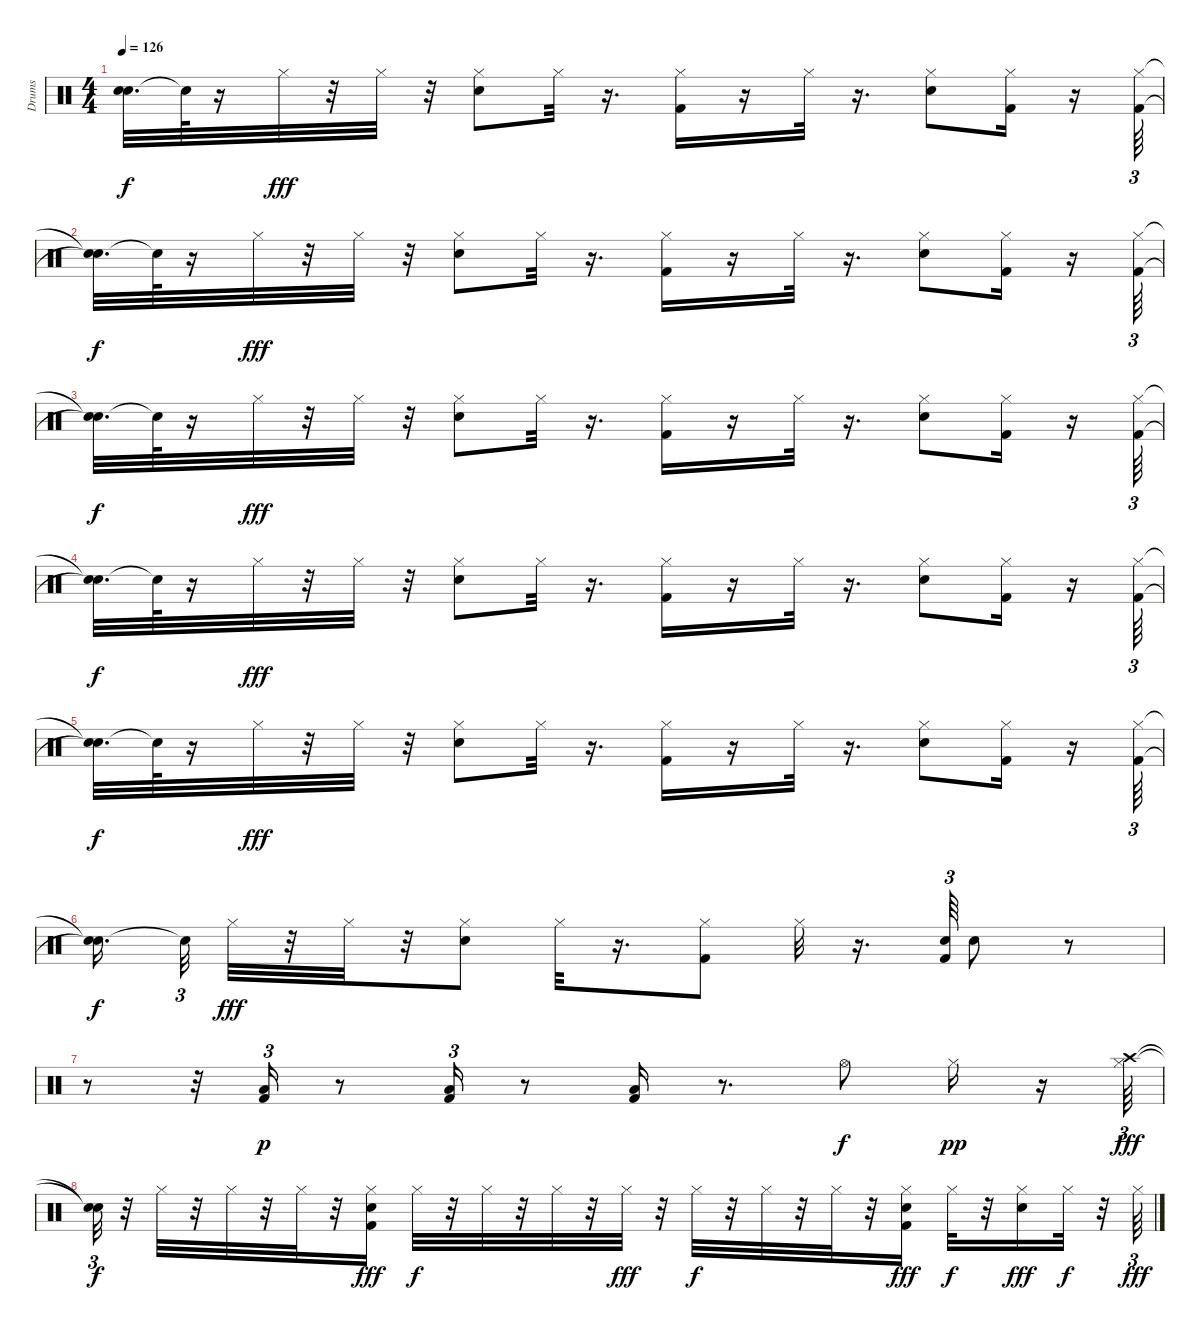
\track ("Drums" "Drums") {instrument percussion}
\staff {score}
\articulation defaults
\ts (4 4)
\tempo 126
\clef neutral
\ks c
("Snare (hit)"{t} "Snare (hit)"{t}).32{d dy f} "Snare (hit)"{t}.64 r.16 "Hi-Hat (closed)".32{dy fff} r.32 "Hi-Hat (closed)".32 r.32 ("Hi-Hat (closed)" "Snare (hit) 2").8 "Hi-Hat (closed)".32 r.16{d} ("Hi-Hat (closed)" "Kick (hit) 2").16 r.16 "Hi-Hat (closed)".32 r.16{d} ("Snare (hit) 2" "Hi-Hat (closed)").8 ("Hi-Hat (closed)" "Kick (hit) 2").16 r.16 ("Hi-Hat (closed)" "Kick (hit) 2").64{tu (3 2)} |
("Snare (hit)"{t} "Snare (hit)"{t}).32{d dy f} "Snare (hit)"{t}.64 r.16 "Hi-Hat (closed)".32{dy fff} r.32 "Hi-Hat (closed)".32 r.32 ("Hi-Hat (closed)" "Snare (hit) 2").8 "Hi-Hat (closed)".32 r.16{d} ("Kick (hit) 2" "Hi-Hat (closed)").16 r.16 "Hi-Hat (closed)".32 r.16{d} ("Hi-Hat (closed)" "Snare (hit) 2").8 ("Kick (hit) 2" "Hi-Hat (closed)").16 r.16 ("Kick (hit) 2" "Hi-Hat (closed)").64{tu (3 2)} |
("Snare (hit)"{t} "Snare (hit)"{t}).32{d dy f} "Snare (hit)"{t}.64 r.16 "Hi-Hat (closed)".32{dy fff} r.32 "Hi-Hat (closed)".32 r.32 ("Snare (hit) 2" "Hi-Hat (closed)").8 "Hi-Hat (closed)".32 r.16{d} ("Hi-Hat (closed)" "Kick (hit) 2").16 r.16 "Hi-Hat (closed)".32 r.16{d} ("Hi-Hat (closed)" "Snare (hit) 2").8 ("Kick (hit) 2" "Hi-Hat (closed)").16 r.16 ("Hi-Hat (closed)" "Kick (hit) 2").64{tu (3 2)} |
("Snare (hit)"{t} "Snare (hit)"{t}).32{d dy f} "Snare (hit)"{t}.64 r.16 "Hi-Hat (closed)".32{dy fff} r.32 "Hi-Hat (closed)".32 r.32 ("Snare (hit) 2" "Hi-Hat (closed)").8 "Hi-Hat (closed)".32 r.16{d} ("Hi-Hat (closed)" "Kick (hit) 2").16 r.16 "Hi-Hat (closed)".32 r.16{d} ("Snare (hit) 2" "Hi-Hat (closed)").8 ("Kick (hit) 2" "Hi-Hat (closed)").16 r.16 ("Kick (hit) 2" "Hi-Hat (closed)").64{tu (3 2)} |
("Snare (hit)"{t} "Snare (hit)"{t}).32{d dy f} "Snare (hit)"{t}.64 r.16 "Hi-Hat (closed)".32{dy fff} r.32 "Hi-Hat (closed)".32 r.32 ("Hi-Hat (closed)" "Snare (hit) 2").8 "Hi-Hat (closed)".32 r.16{d} ("Hi-Hat (closed)" "Kick (hit) 2").16 r.16 "Hi-Hat (closed)".32 r.16{d} ("Snare (hit) 2" "Hi-Hat (closed)").8 ("Kick (hit) 2" "Hi-Hat (closed)").16 r.16 ("Kick (hit) 2" "Hi-Hat (closed)").64{tu (3 2)} |
("Snare (hit)"{t} "Snare (hit)"{t}).16{d dy f} "Snare (hit)"{t}.32{tu (3 2)} "Hi-Hat (closed)".32{dy fff} r.32 "Hi-Hat (closed)".32 r.32 ("Hi-Hat (closed)" "Snare (hit) 2").8 "Hi-Hat (closed)".32 r.16{d} ("Hi-Hat (closed)" "Kick (hit) 2").8 "Hi-Hat (closed)".32 r.16{d} ("Kick (hit) 2" "Snare (hit) 2").64{tu (3 2)} "Snare (hit) 2".8 r.8 |
r.8 r.32 ("Kick (hit) 2" "Low Floor Tom (hit)").16{tu (3 2) dy p} r.8 ("Kick (hit) 2" "Low Floor Tom (hit)").16{tu (3 2)} r.8 ("Kick (hit) 2" "Low Floor Tom (hit)").16 r.8{d} "Hi-Hat (open)".8{dy f} "Hi-Hat (closed)".16{dy pp} r.16 ("Crash high (hit)" "Hi-Hat (closed)").64{tu (3 2) dy fff} |
("Snare (hit)"{t} "Snare (hit)"{t}).32{tu (3 2) dy f} r.32 "Hi-Hat (closed)".32 r.32 "Hi-Hat (closed)".32 r.32 "Hi-Hat (closed)".32 r.32 ("Kick (hit) 2" "Hand Clap (hit)" "Hi-Hat (closed)").16{dy fff} "Hi-Hat (closed)".32{dy f} r.32 "Hi-Hat (closed)".32 r.32 "Hi-Hat (closed)".32 r.32 "Hi-Hat (closed)".32{dy fff} r.32 "Hi-Hat (closed)".32{dy f} r.32 "Hi-Hat (closed)".32 r.32 "Hi-Hat (closed)".32 r.32 ("Kick (hit) 2" "Hand Clap (hit)" "Hi-Hat (closed)").16{dy fff} "Hi-Hat (closed)".32{dy f} r.32 ("Hi-Hat (closed)" "Hand Clap (hit)").16{dy fff} "Hi-Hat (closed)".32{dy f} r.32 "Hi-Hat (closed)".64{tu (3 2) dy fff}
